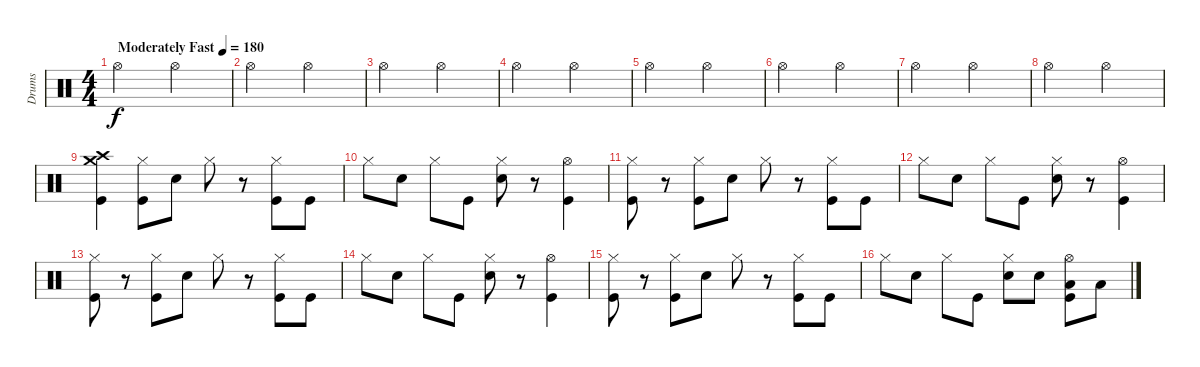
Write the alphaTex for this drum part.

\track ("Drums" "Drums") {instrument percussion}
\staff {score}
\articulation defaults
\ts (4 4)
\tempo (180 "Moderately Fast")
\clef neutral
\ks c "Hi-Hat (open)".2{dy f volume 3} "Hi-Hat (open)".2
|
"Hi-Hat (open)".2 "Hi-Hat (open)".2 |
"Hi-Hat (open)".2 "Hi-Hat (open)".2 |
"Hi-Hat (open)".2 "Hi-Hat (open)".2 |
"Hi-Hat (open)".2{volume 13} "Hi-Hat (open)".2 |
"Hi-Hat (open)".2 "Hi-Hat (open)".2 |
"Hi-Hat (open)".2 "Hi-Hat (open)".2 |
"Hi-Hat (open)".2 "Hi-Hat (open)".2 |
("Crash medium (hit)" "Crash high (hit)" "Kick (hit)").4 ("Hi-Hat (closed)" "Kick (hit)").8 "Snare (hit) 2".8 "Hi-Hat (closed)".8 r.8 ("Hi-Hat (closed)" "Kick (hit)").8 "Kick (hit)".8 |
"Hi-Hat (closed)".8 "Snare (hit) 2".8 "Hi-Hat (closed)".8 "Kick (hit)".8 ("Hi-Hat (closed)" "Snare (hit) 2").8 r.8 ("Hi-Hat (open)" "Kick (hit)").4 |
("Hi-Hat (closed)" "Kick (hit)").8 r.8 ("Hi-Hat (closed)" "Kick (hit)").8 "Snare (hit) 2".8 "Hi-Hat (closed)".8 r.8 ("Hi-Hat (closed)" "Kick (hit)").8 "Kick (hit)".8 |
"Hi-Hat (closed)".8 "Snare (hit) 2".8 "Hi-Hat (closed)".8 "Kick (hit)".8 ("Hi-Hat (closed)" "Snare (hit) 2").8 r.8 ("Hi-Hat (open)" "Kick (hit)").4 |
("Hi-Hat (closed)" "Kick (hit)").8 r.8 ("Hi-Hat (closed)" "Kick (hit)").8 "Snare (hit) 2".8 "Hi-Hat (closed)".8 r.8 ("Hi-Hat (closed)" "Kick (hit)").8 "Kick (hit)".8 |
"Hi-Hat (closed)".8 "Snare (hit) 2".8 "Hi-Hat (closed)".8 "Kick (hit)".8 ("Hi-Hat (closed)" "Snare (hit) 2").8 r.8 ("Hi-Hat (open)" "Kick (hit)").4 |
("Hi-Hat (closed)" "Kick (hit)").8 r.8 ("Hi-Hat (closed)" "Kick (hit)").8 "Snare (hit) 2".8 "Hi-Hat (closed)".8 r.8 ("Hi-Hat (closed)" "Kick (hit)").8 "Kick (hit)".8 |
"Hi-Hat (closed)".8 "Snare (hit) 2".8 "Hi-Hat (closed)".8 "Kick (hit)".8 ("Hi-Hat (closed)" "Snare (hit) 2").8 "Snare (hit) 2".8 ("Low Tom (hit)" "Hi-Hat (open)" "Kick (hit)").8 "Low Tom (hit)".8
